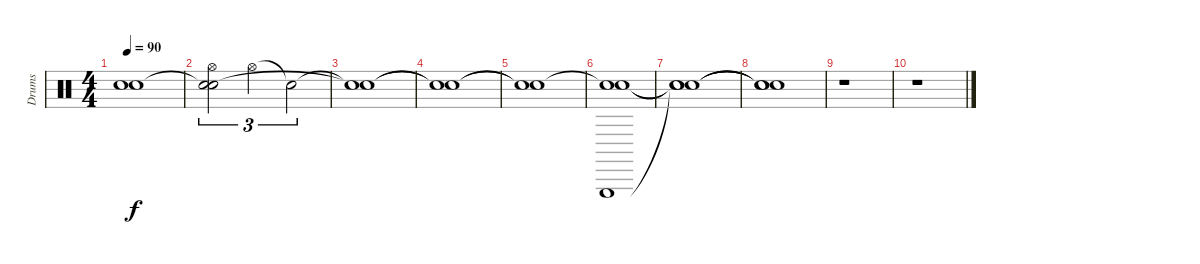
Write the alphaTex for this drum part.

\track ("Drums" "Drums") {instrument percussion}
\staff {score}
\articulation defaults
\ts (4 4)
\tempo 90
\clef neutral
\ks c
("Snare (hit)"{t} "Snare (hit)"{t}).1{dy f} |
("Hi-Hat (open)" "Snare (hit)"{t} "Snare (hit)"{t}).2{tu (3 2)} "Hi-Hat (open)".2{tu (3 2)} "Snare (hit)"{t}.2{tu (3 2)} |
("Snare (hit)"{t} "Snare (hit)"{t}).1 |
("Snare (hit)"{t} "Snare (hit)"{t}).1 |
("Snare (hit)"{t} "Snare (hit)"{t}).1 |
("Triangle (hit)" "Snare (hit)"{t} "Snare (hit)").1{volume 16} |
("Snare (hit)"{t} "Snare (hit)"{t} "Snare (hit)"{t}).1 |
("Snare (hit)"{t} "Snare (hit)"{t} "Snare (hit)"{t}).1 |
r.1 |
r.1
